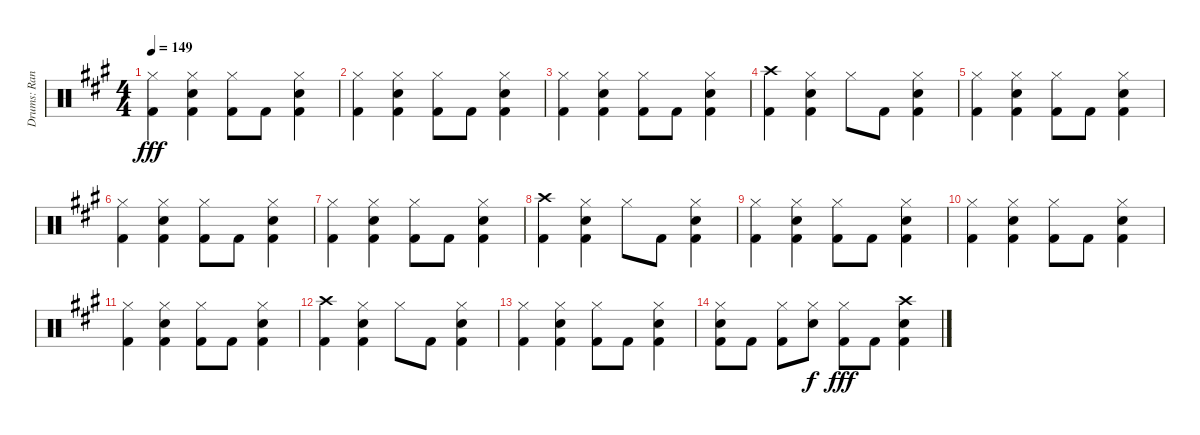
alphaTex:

\track ("Drums: Randy" "Drums: Ran") {instrument percussion}
\staff {score}
\articulation defaults
\ts (4 4)
\tempo 149
\clef neutral
\ks a
("Hi-Hat (closed)" "Kick (hit) 2").4{dy fff} ("Hi-Hat (closed)" "Snare (hit) 2" "Kick (hit) 2").4 ("Hi-Hat (closed)" "Kick (hit) 2").8 "Kick (hit) 2".8 ("Hi-Hat (closed)" "Snare (hit) 2" "Kick (hit) 2").4 |
("Hi-Hat (closed)" "Kick (hit) 2").4 ("Hi-Hat (closed)" "Snare (hit) 2" "Kick (hit) 2").4 ("Hi-Hat (closed)" "Kick (hit) 2").8 "Kick (hit) 2".8 ("Hi-Hat (closed)" "Snare (hit) 2" "Kick (hit) 2").4 |
("Hi-Hat (closed)" "Kick (hit) 2").4 ("Hi-Hat (closed)" "Snare (hit) 2" "Kick (hit) 2").4 ("Hi-Hat (closed)" "Kick (hit) 2").8 "Kick (hit) 2".8 ("Hi-Hat (closed)" "Snare (hit) 2" "Kick (hit) 2").4 |
("Crash high (hit)" "Kick (hit) 2").4 ("Hi-Hat (closed)" "Snare (hit) 2" "Kick (hit) 2").4 "Hi-Hat (closed)".8 "Kick (hit) 2".8 ("Hi-Hat (closed)" "Snare (hit) 2" "Kick (hit) 2").4 |
("Hi-Hat (closed)" "Kick (hit) 2").4 ("Hi-Hat (closed)" "Snare (hit) 2" "Kick (hit) 2").4 ("Hi-Hat (closed)" "Kick (hit) 2").8 "Kick (hit) 2".8 ("Hi-Hat (closed)" "Snare (hit) 2" "Kick (hit) 2").4 |
("Hi-Hat (closed)" "Kick (hit) 2").4 ("Hi-Hat (closed)" "Snare (hit) 2" "Kick (hit) 2").4 ("Hi-Hat (closed)" "Kick (hit) 2").8 "Kick (hit) 2".8 ("Hi-Hat (closed)" "Snare (hit) 2" "Kick (hit) 2").4 |
("Hi-Hat (closed)" "Kick (hit) 2").4 ("Hi-Hat (closed)" "Snare (hit) 2" "Kick (hit) 2").4 ("Hi-Hat (closed)" "Kick (hit) 2").8 "Kick (hit) 2".8 ("Hi-Hat (closed)" "Snare (hit) 2" "Kick (hit) 2").4 |
("Crash high (hit)" "Kick (hit) 2").4 ("Hi-Hat (closed)" "Snare (hit) 2" "Kick (hit) 2").4 "Hi-Hat (closed)".8 "Kick (hit) 2".8 ("Hi-Hat (closed)" "Snare (hit) 2" "Kick (hit) 2").4 |
("Hi-Hat (closed)" "Kick (hit) 2").4 ("Hi-Hat (closed)" "Snare (hit) 2" "Kick (hit) 2").4 ("Hi-Hat (closed)" "Kick (hit) 2").8 "Kick (hit) 2".8 ("Hi-Hat (closed)" "Snare (hit) 2" "Kick (hit) 2").4 |
("Hi-Hat (closed)" "Kick (hit) 2").4 ("Hi-Hat (closed)" "Snare (hit) 2" "Kick (hit) 2").4 ("Hi-Hat (closed)" "Kick (hit) 2").8 "Kick (hit) 2".8 ("Hi-Hat (closed)" "Snare (hit) 2" "Kick (hit) 2").4 |
("Hi-Hat (closed)" "Kick (hit) 2").4 ("Hi-Hat (closed)" "Snare (hit) 2" "Kick (hit) 2").4 ("Hi-Hat (closed)" "Kick (hit) 2").8 "Kick (hit) 2".8 ("Hi-Hat (closed)" "Snare (hit) 2" "Kick (hit) 2").4 |
("Crash high (hit)" "Kick (hit) 2").4 ("Hi-Hat (closed)" "Snare (hit) 2" "Kick (hit) 2").4 "Hi-Hat (closed)".8 "Kick (hit) 2".8 ("Hi-Hat (closed)" "Snare (hit) 2" "Kick (hit) 2").4 |
("Hi-Hat (closed)" "Kick (hit) 2").4 ("Hi-Hat (closed)" "Snare (hit) 2" "Kick (hit) 2").4 ("Hi-Hat (closed)" "Kick (hit) 2").8 "Kick (hit) 2".8 ("Hi-Hat (closed)" "Snare (hit) 2" "Kick (hit) 2").4 |
("Hi-Hat (closed)" "Snare (hit) 2" "Kick (hit) 2").8 "Kick (hit) 2".8 ("Hi-Hat (closed)" "Kick (hit) 2").8 ("Hi-Hat (closed)" "Snare (hit) 2").8{dy f} ("Hi-Hat (closed)" "Kick (hit) 2").8{dy fff} "Kick (hit) 2".8 ("Crash high (hit)" "Snare (hit) 2" "Kick (hit) 2").4
